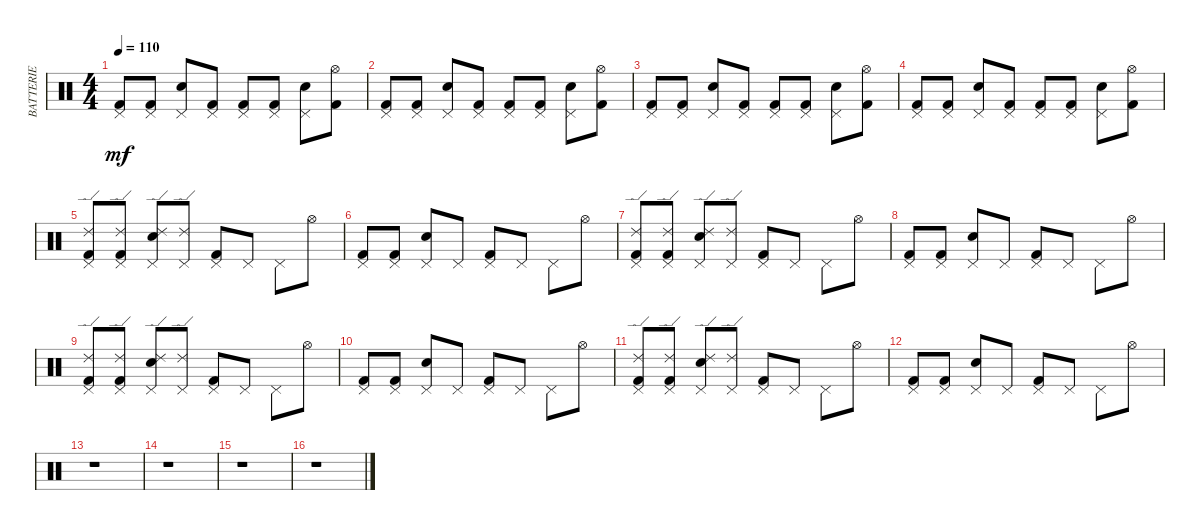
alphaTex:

\track ("BATTERIE" "BATTERIE") {instrument percussion}
\staff {score}
\articulation defaults
\ts (4 4)
\tempo 110
\clef neutral
\ks c
("Kick (hit) 2" "Pedal Hi-Hat (hit)").8{dy mf} ("Kick (hit) 2" "Pedal Hi-Hat (hit)").8 ("Pedal Hi-Hat (hit)" "Electric Snare (hit)").8 ("Pedal Hi-Hat (hit)" "Kick (hit) 2").8 ("Kick (hit) 2" "Pedal Hi-Hat (hit)").8 ("Pedal Hi-Hat (hit)" "Kick (hit) 2").8 ("Pedal Hi-Hat (hit)" "Electric Snare (hit)").8 ("Hi-Hat (open)" "Kick (hit) 2").8 |
("Kick (hit) 2" "Pedal Hi-Hat (hit)").8 ("Kick (hit) 2" "Pedal Hi-Hat (hit)").8 ("Pedal Hi-Hat (hit)" "Electric Snare (hit)").8 ("Pedal Hi-Hat (hit)" "Kick (hit) 2").8 ("Kick (hit) 2" "Pedal Hi-Hat (hit)").8 ("Pedal Hi-Hat (hit)" "Kick (hit) 2").8 ("Pedal Hi-Hat (hit)" "Electric Snare (hit)").8 ("Hi-Hat (open)" "Kick (hit) 2").8 |
("Kick (hit) 2" "Pedal Hi-Hat (hit)").8 ("Kick (hit) 2" "Pedal Hi-Hat (hit)").8 ("Pedal Hi-Hat (hit)" "Electric Snare (hit)").8 ("Pedal Hi-Hat (hit)" "Kick (hit) 2").8 ("Kick (hit) 2" "Pedal Hi-Hat (hit)").8 ("Pedal Hi-Hat (hit)" "Kick (hit) 2").8 ("Pedal Hi-Hat (hit)" "Electric Snare (hit)").8 ("Hi-Hat (open)" "Kick (hit) 2").8 |
("Kick (hit) 2" "Pedal Hi-Hat (hit)").8 ("Kick (hit) 2" "Pedal Hi-Hat (hit)").8 ("Pedal Hi-Hat (hit)" "Electric Snare (hit)").8 ("Pedal Hi-Hat (hit)" "Kick (hit) 2").8 ("Kick (hit) 2" "Pedal Hi-Hat (hit)").8 ("Pedal Hi-Hat (hit)" "Kick (hit) 2").8 ("Electric Snare (hit)" "Pedal Hi-Hat (hit)").8 ("Hi-Hat (open)" "Kick (hit) 2").8 |
("Ride (edge) 2" "Pedal Hi-Hat (hit)" "Kick (hit) 2").8 ("Ride (edge) 2" "Pedal Hi-Hat (hit)" "Kick (hit) 2").8 ("Ride (edge) 2" "Pedal Hi-Hat (hit)" "Electric Snare (hit)").8 ("Ride (edge) 2" "Pedal Hi-Hat (hit)").8 ("Pedal Hi-Hat (hit)" "Kick (hit) 2").8 "Pedal Hi-Hat (hit)".8 "Pedal Hi-Hat (hit)".8 "Hi-Hat (open)".8 |
("Kick (hit) 2" "Pedal Hi-Hat (hit)").8 ("Kick (hit) 2" "Pedal Hi-Hat (hit)").8 ("Electric Snare (hit)" "Pedal Hi-Hat (hit)").8 "Pedal Hi-Hat (hit)".8 ("Kick (hit) 2" "Pedal Hi-Hat (hit)").8 "Pedal Hi-Hat (hit)".8 "Pedal Hi-Hat (hit)".8 "Hi-Hat (open)".8 |
("Kick (hit) 2" "Pedal Hi-Hat (hit)" "Ride (edge) 2").8 ("Kick (hit) 2" "Pedal Hi-Hat (hit)" "Ride (edge) 2").8 ("Electric Snare (hit)" "Pedal Hi-Hat (hit)" "Ride (edge) 2").8 ("Pedal Hi-Hat (hit)" "Ride (edge) 2").8 ("Kick (hit) 2" "Pedal Hi-Hat (hit)").8 "Pedal Hi-Hat (hit)".8 "Pedal Hi-Hat (hit)".8 "Hi-Hat (open)".8 |
("Pedal Hi-Hat (hit)" "Kick (hit) 2").8 ("Pedal Hi-Hat (hit)" "Kick (hit) 2").8 ("Pedal Hi-Hat (hit)" "Electric Snare (hit)").8 "Pedal Hi-Hat (hit)".8 ("Pedal Hi-Hat (hit)" "Kick (hit) 2").8 "Pedal Hi-Hat (hit)".8 "Pedal Hi-Hat (hit)".8 "Hi-Hat (open)".8 |
("Kick (hit) 2" "Pedal Hi-Hat (hit)" "Ride (edge) 2").8 ("Kick (hit) 2" "Pedal Hi-Hat (hit)" "Ride (edge) 2").8 ("Electric Snare (hit)" "Pedal Hi-Hat (hit)" "Ride (edge) 2").8 ("Pedal Hi-Hat (hit)" "Ride (edge) 2").8 ("Kick (hit) 2" "Pedal Hi-Hat (hit)").8 "Pedal Hi-Hat (hit)".8 "Pedal Hi-Hat (hit)".8 "Hi-Hat (open)".8 |
("Pedal Hi-Hat (hit)" "Kick (hit) 2").8 ("Pedal Hi-Hat (hit)" "Kick (hit) 2").8 ("Pedal Hi-Hat (hit)" "Electric Snare (hit)").8 "Pedal Hi-Hat (hit)".8 ("Pedal Hi-Hat (hit)" "Kick (hit) 2").8 "Pedal Hi-Hat (hit)".8 "Pedal Hi-Hat (hit)".8 "Hi-Hat (open)".8 |
("Ride (edge) 2" "Pedal Hi-Hat (hit)" "Kick (hit) 2").8 ("Ride (edge) 2" "Pedal Hi-Hat (hit)" "Kick (hit) 2").8 ("Ride (edge) 2" "Pedal Hi-Hat (hit)" "Electric Snare (hit)").8 ("Ride (edge) 2" "Pedal Hi-Hat (hit)").8 ("Pedal Hi-Hat (hit)" "Kick (hit) 2").8 "Pedal Hi-Hat (hit)".8 "Pedal Hi-Hat (hit)".8 "Hi-Hat (open)".8 |
("Kick (hit) 2" "Pedal Hi-Hat (hit)").8 ("Kick (hit) 2" "Pedal Hi-Hat (hit)").8 ("Electric Snare (hit)" "Pedal Hi-Hat (hit)").8 "Pedal Hi-Hat (hit)".8 ("Kick (hit) 2" "Pedal Hi-Hat (hit)").8 "Pedal Hi-Hat (hit)".8 "Pedal Hi-Hat (hit)".8 "Hi-Hat (open)".8 |
r.1 |
r.1 |
r.1 |
r.1
